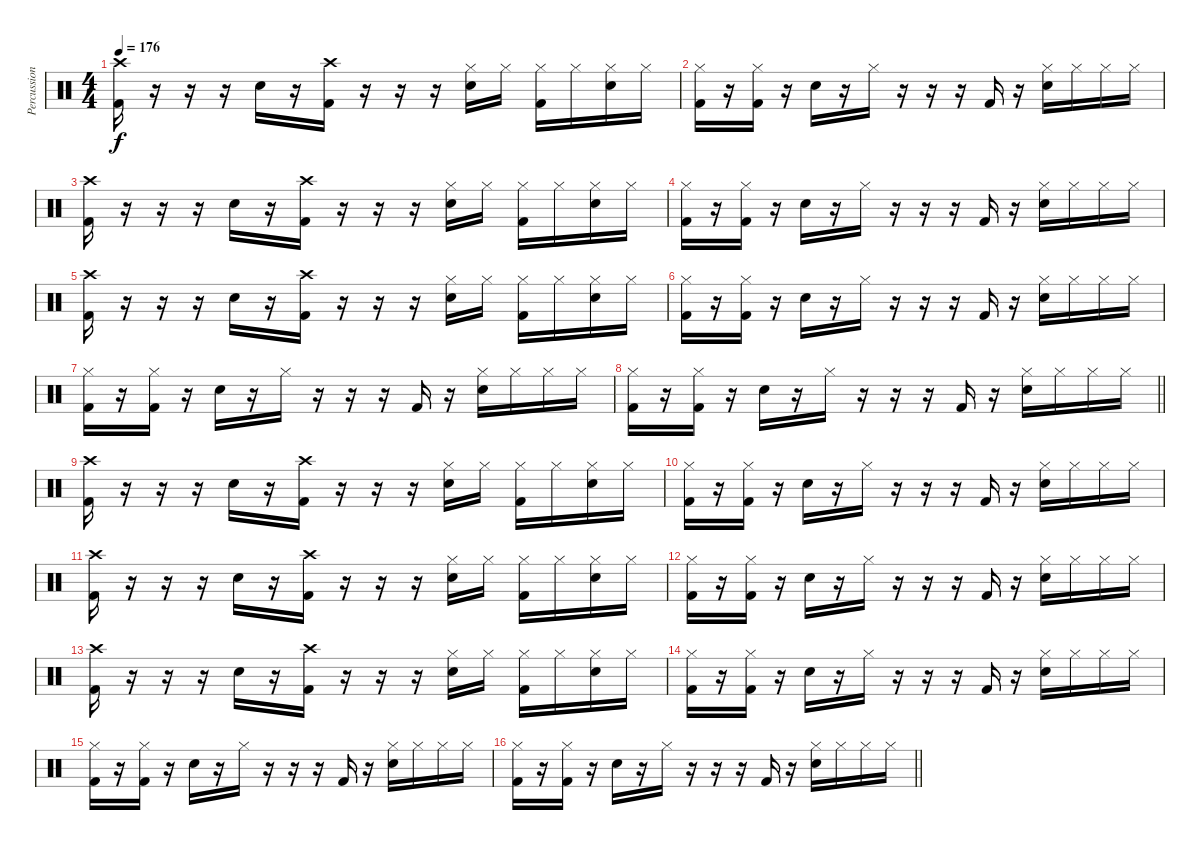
\track ("Percussion" "Percussion") {instrument percussion}
\staff {score}
\articulation defaults
\ts (4 4)
\tempo 176
\clef neutral
\ks c
("Kick (hit) 2" "Crash high (hit)").16{dy f} r.16 r.16 r.16 "Electric Snare (hit)".16 r.16 ("Kick (hit) 2" "Crash high (hit)").16 r.16 r.16 r.16 ("Electric Snare (hit)" "Hi-Hat (closed)").16 "Hi-Hat (closed)".16 ("Kick (hit) 2" "Hi-Hat (closed)").16 "Hi-Hat (closed)".16 ("Electric Snare (hit)" "Hi-Hat (closed)").16 "Hi-Hat (closed)".16 |
("Kick (hit) 2" "Hi-Hat (closed)").16 r.16 ("Kick (hit) 2" "Hi-Hat (closed)").16 r.16 "Electric Snare (hit)".16 r.16 "Hi-Hat (closed)".16 r.16 r.16 r.16 "Kick (hit) 2".16 r.16 ("Electric Snare (hit)" "Hi-Hat (closed)").16 "Hi-Hat (closed)".16 "Hi-Hat (closed)".16 "Hi-Hat (closed)".16 |
("Kick (hit) 2" "Crash high (hit)").16 r.16 r.16 r.16 "Electric Snare (hit)".16 r.16 ("Kick (hit) 2" "Crash high (hit)").16 r.16 r.16 r.16 ("Electric Snare (hit)" "Hi-Hat (closed)").16 "Hi-Hat (closed)".16 ("Kick (hit) 2" "Hi-Hat (closed)").16 "Hi-Hat (closed)".16 ("Electric Snare (hit)" "Hi-Hat (closed)").16 "Hi-Hat (closed)".16 |
("Kick (hit) 2" "Hi-Hat (closed)").16 r.16 ("Kick (hit) 2" "Hi-Hat (closed)").16 r.16 "Electric Snare (hit)".16 r.16 "Hi-Hat (closed)".16 r.16 r.16 r.16 "Kick (hit) 2".16 r.16 ("Electric Snare (hit)" "Hi-Hat (closed)").16 "Hi-Hat (closed)".16 "Hi-Hat (closed)".16 "Hi-Hat (closed)".16 |
("Kick (hit) 2" "Crash high (hit)").16 r.16 r.16 r.16 "Electric Snare (hit)".16 r.16 ("Kick (hit) 2" "Crash high (hit)").16 r.16 r.16 r.16 ("Electric Snare (hit)" "Hi-Hat (closed)").16 "Hi-Hat (closed)".16 ("Kick (hit) 2" "Hi-Hat (closed)").16 "Hi-Hat (closed)".16 ("Electric Snare (hit)" "Hi-Hat (closed)").16 "Hi-Hat (closed)".16 |
("Kick (hit) 2" "Hi-Hat (closed)").16 r.16 ("Kick (hit) 2" "Hi-Hat (closed)").16 r.16 "Electric Snare (hit)".16 r.16 "Hi-Hat (closed)".16 r.16 r.16 r.16 "Kick (hit) 2".16 r.16 ("Electric Snare (hit)" "Hi-Hat (closed)").16 "Hi-Hat (closed)".16 "Hi-Hat (closed)".16 "Hi-Hat (closed)".16 |
("Kick (hit) 2" "Hi-Hat (closed)").16 r.16 ("Kick (hit) 2" "Hi-Hat (closed)").16 r.16 "Electric Snare (hit)".16 r.16 "Hi-Hat (closed)".16 r.16 r.16 r.16 "Kick (hit) 2".16 r.16 ("Electric Snare (hit)" "Hi-Hat (closed)").16 "Hi-Hat (closed)".16 "Hi-Hat (closed)".16 "Hi-Hat (closed)".16 |
\barLineRight lightlight
("Kick (hit) 2" "Hi-Hat (closed)").16 r.16 ("Kick (hit) 2" "Hi-Hat (closed)").16 r.16 "Electric Snare (hit)".16 r.16 "Hi-Hat (closed)".16 r.16 r.16 r.16 "Kick (hit) 2".16 r.16 ("Electric Snare (hit)" "Hi-Hat (closed)").16 "Hi-Hat (closed)".16 "Hi-Hat (closed)".16 "Hi-Hat (closed)".16 |
("Kick (hit) 2" "Crash high (hit)").16 r.16 r.16 r.16 "Electric Snare (hit)".16 r.16 ("Kick (hit) 2" "Crash high (hit)").16 r.16 r.16 r.16 ("Electric Snare (hit)" "Hi-Hat (closed)").16 "Hi-Hat (closed)".16 ("Kick (hit) 2" "Hi-Hat (closed)").16 "Hi-Hat (closed)".16 ("Electric Snare (hit)" "Hi-Hat (closed)").16 "Hi-Hat (closed)".16 |
("Kick (hit) 2" "Hi-Hat (closed)").16 r.16 ("Kick (hit) 2" "Hi-Hat (closed)").16 r.16 "Electric Snare (hit)".16 r.16 "Hi-Hat (closed)".16 r.16 r.16 r.16 "Kick (hit) 2".16 r.16 ("Electric Snare (hit)" "Hi-Hat (closed)").16 "Hi-Hat (closed)".16 "Hi-Hat (closed)".16 "Hi-Hat (closed)".16 |
("Kick (hit) 2" "Crash high (hit)").16 r.16 r.16 r.16 "Electric Snare (hit)".16 r.16 ("Kick (hit) 2" "Crash high (hit)").16 r.16 r.16 r.16 ("Electric Snare (hit)" "Hi-Hat (closed)").16 "Hi-Hat (closed)".16 ("Kick (hit) 2" "Hi-Hat (closed)").16 "Hi-Hat (closed)".16 ("Electric Snare (hit)" "Hi-Hat (closed)").16 "Hi-Hat (closed)".16 |
("Kick (hit) 2" "Hi-Hat (closed)").16 r.16 ("Kick (hit) 2" "Hi-Hat (closed)").16 r.16 "Electric Snare (hit)".16 r.16 "Hi-Hat (closed)".16 r.16 r.16 r.16 "Kick (hit) 2".16 r.16 ("Electric Snare (hit)" "Hi-Hat (closed)").16 "Hi-Hat (closed)".16 "Hi-Hat (closed)".16 "Hi-Hat (closed)".16 |
("Kick (hit) 2" "Crash high (hit)").16 r.16 r.16 r.16 "Electric Snare (hit)".16 r.16 ("Kick (hit) 2" "Crash high (hit)").16 r.16 r.16 r.16 ("Electric Snare (hit)" "Hi-Hat (closed)").16 "Hi-Hat (closed)".16 ("Kick (hit) 2" "Hi-Hat (closed)").16 "Hi-Hat (closed)".16 ("Electric Snare (hit)" "Hi-Hat (closed)").16 "Hi-Hat (closed)".16 |
("Kick (hit) 2" "Hi-Hat (closed)").16 r.16 ("Kick (hit) 2" "Hi-Hat (closed)").16 r.16 "Electric Snare (hit)".16 r.16 "Hi-Hat (closed)".16 r.16 r.16 r.16 "Kick (hit) 2".16 r.16 ("Electric Snare (hit)" "Hi-Hat (closed)").16 "Hi-Hat (closed)".16 "Hi-Hat (closed)".16 "Hi-Hat (closed)".16 |
("Kick (hit) 2" "Hi-Hat (closed)").16 r.16 ("Kick (hit) 2" "Hi-Hat (closed)").16 r.16 "Electric Snare (hit)".16 r.16 "Hi-Hat (closed)".16 r.16 r.16 r.16 "Kick (hit) 2".16 r.16 ("Electric Snare (hit)" "Hi-Hat (closed)").16 "Hi-Hat (closed)".16 "Hi-Hat (closed)".16 "Hi-Hat (closed)".16 |
\barLineRight lightlight
("Kick (hit) 2" "Hi-Hat (closed)").16 r.16 ("Kick (hit) 2" "Hi-Hat (closed)").16 r.16 "Electric Snare (hit)".16 r.16 "Hi-Hat (closed)".16 r.16 r.16 r.16 "Kick (hit) 2".16 r.16 ("Electric Snare (hit)" "Hi-Hat (closed)").16 "Hi-Hat (closed)".16 "Hi-Hat (closed)".16 "Hi-Hat (closed)".16
